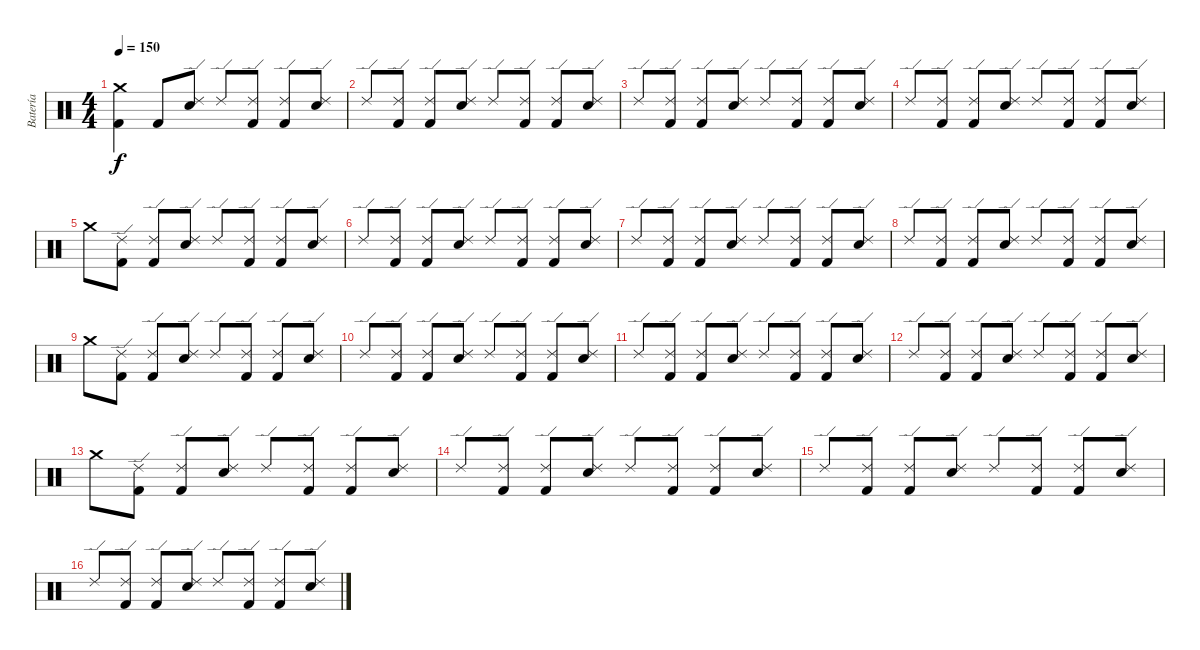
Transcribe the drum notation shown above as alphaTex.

\track ("Batería" "Batería") {instrument percussion}
\staff {score}
\articulation defaults
\ts (4 4)
\tempo 150
\clef neutral
\ks c
("Crash medium (hit)" "Kick (hit) 2").4{dy f} "Kick (hit) 2".8 ("Ride (edge) 2" "Electric Snare (hit)").8 "Ride (edge) 2".8 ("Ride (edge) 2" "Kick (hit) 2").8 ("Ride (edge) 2" "Kick (hit) 2").8 ("Ride (edge) 2" "Electric Snare (hit)").8 |
"Ride (edge) 2".8 ("Ride (edge) 2" "Kick (hit) 2").8 ("Ride (edge) 2" "Kick (hit) 2").8 ("Ride (edge) 2" "Electric Snare (hit)").8 "Ride (edge) 2".8 ("Ride (edge) 2" "Kick (hit) 2").8 ("Ride (edge) 2" "Kick (hit) 2").8 ("Ride (edge) 2" "Electric Snare (hit)").8 |
"Ride (edge) 2".8 ("Ride (edge) 2" "Kick (hit) 2").8 ("Ride (edge) 2" "Kick (hit) 2").8 ("Ride (edge) 2" "Electric Snare (hit)").8 "Ride (edge) 2".8 ("Ride (edge) 2" "Kick (hit) 2").8 ("Ride (edge) 2" "Kick (hit) 2").8 ("Ride (edge) 2" "Electric Snare (hit)").8 |
"Ride (edge) 2".8 ("Ride (edge) 2" "Kick (hit) 2").8 ("Ride (edge) 2" "Kick (hit) 2").8 ("Ride (edge) 2" "Electric Snare (hit)").8 "Ride (edge) 2".8 ("Ride (edge) 2" "Kick (hit) 2").8 ("Ride (edge) 2" "Kick (hit) 2").8 ("Ride (edge) 2" "Electric Snare (hit)").8 |
"Crash medium (hit)".8 ("Ride (edge) 2" "Kick (hit) 2").8 ("Ride (edge) 2" "Kick (hit) 2").8 ("Ride (edge) 2" "Electric Snare (hit)").8 "Ride (edge) 2".8 ("Ride (edge) 2" "Kick (hit) 2").8 ("Ride (edge) 2" "Kick (hit) 2").8 ("Ride (edge) 2" "Electric Snare (hit)").8 |
"Ride (edge) 2".8 ("Ride (edge) 2" "Kick (hit) 2").8 ("Ride (edge) 2" "Kick (hit) 2").8 ("Ride (edge) 2" "Electric Snare (hit)").8 "Ride (edge) 2".8 ("Ride (edge) 2" "Kick (hit) 2").8 ("Ride (edge) 2" "Kick (hit) 2").8 ("Ride (edge) 2" "Electric Snare (hit)").8 |
"Ride (edge) 2".8 ("Ride (edge) 2" "Kick (hit) 2").8 ("Ride (edge) 2" "Kick (hit) 2").8 ("Ride (edge) 2" "Electric Snare (hit)").8 "Ride (edge) 2".8 ("Ride (edge) 2" "Kick (hit) 2").8 ("Ride (edge) 2" "Kick (hit) 2").8 ("Ride (edge) 2" "Electric Snare (hit)").8 |
"Ride (edge) 2".8 ("Ride (edge) 2" "Kick (hit) 2").8 ("Ride (edge) 2" "Kick (hit) 2").8 ("Ride (edge) 2" "Electric Snare (hit)").8 "Ride (edge) 2".8 ("Ride (edge) 2" "Kick (hit) 2").8 ("Ride (edge) 2" "Kick (hit) 2").8 ("Ride (edge) 2" "Electric Snare (hit)").8 |
"Crash medium (hit)".8 ("Ride (edge) 2" "Kick (hit) 2").8 ("Ride (edge) 2" "Kick (hit) 2").8 ("Ride (edge) 2" "Electric Snare (hit)").8 "Ride (edge) 2".8 ("Ride (edge) 2" "Kick (hit) 2").8 ("Ride (edge) 2" "Kick (hit) 2").8 ("Ride (edge) 2" "Electric Snare (hit)").8 |
"Ride (edge) 2".8 ("Ride (edge) 2" "Kick (hit) 2").8 ("Ride (edge) 2" "Kick (hit) 2").8 ("Ride (edge) 2" "Electric Snare (hit)").8 "Ride (edge) 2".8 ("Ride (edge) 2" "Kick (hit) 2").8 ("Ride (edge) 2" "Kick (hit) 2").8 ("Ride (edge) 2" "Electric Snare (hit)").8 |
"Ride (edge) 2".8 ("Ride (edge) 2" "Kick (hit) 2").8 ("Ride (edge) 2" "Kick (hit) 2").8 ("Ride (edge) 2" "Electric Snare (hit)").8 "Ride (edge) 2".8 ("Ride (edge) 2" "Kick (hit) 2").8 ("Ride (edge) 2" "Kick (hit) 2").8 ("Ride (edge) 2" "Electric Snare (hit)").8 |
"Ride (edge) 2".8 ("Ride (edge) 2" "Kick (hit) 2").8 ("Ride (edge) 2" "Kick (hit) 2").8 ("Ride (edge) 2" "Electric Snare (hit)").8 "Ride (edge) 2".8 ("Ride (edge) 2" "Kick (hit) 2").8 ("Ride (edge) 2" "Kick (hit) 2").8 ("Ride (edge) 2" "Electric Snare (hit)").8 |
"Crash medium (hit)".8 ("Ride (edge) 2" "Kick (hit) 2").8 ("Ride (edge) 2" "Kick (hit) 2").8 ("Ride (edge) 2" "Electric Snare (hit)").8 "Ride (edge) 2".8 ("Ride (edge) 2" "Kick (hit) 2").8 ("Ride (edge) 2" "Kick (hit) 2").8 ("Ride (edge) 2" "Electric Snare (hit)").8 |
"Ride (edge) 2".8 ("Ride (edge) 2" "Kick (hit) 2").8 ("Ride (edge) 2" "Kick (hit) 2").8 ("Ride (edge) 2" "Electric Snare (hit)").8 "Ride (edge) 2".8 ("Ride (edge) 2" "Kick (hit) 2").8 ("Ride (edge) 2" "Kick (hit) 2").8 ("Ride (edge) 2" "Electric Snare (hit)").8 |
"Ride (edge) 2".8 ("Ride (edge) 2" "Kick (hit) 2").8 ("Ride (edge) 2" "Kick (hit) 2").8 ("Ride (edge) 2" "Electric Snare (hit)").8 "Ride (edge) 2".8 ("Ride (edge) 2" "Kick (hit) 2").8 ("Ride (edge) 2" "Kick (hit) 2").8 ("Ride (edge) 2" "Electric Snare (hit)").8 |
"Ride (edge) 2".8 ("Ride (edge) 2" "Kick (hit) 2").8 ("Ride (edge) 2" "Kick (hit) 2").8 ("Ride (edge) 2" "Electric Snare (hit)").8 "Ride (edge) 2".8 ("Ride (edge) 2" "Kick (hit) 2").8 ("Ride (edge) 2" "Kick (hit) 2").8 ("Ride (edge) 2" "Electric Snare (hit)").8
